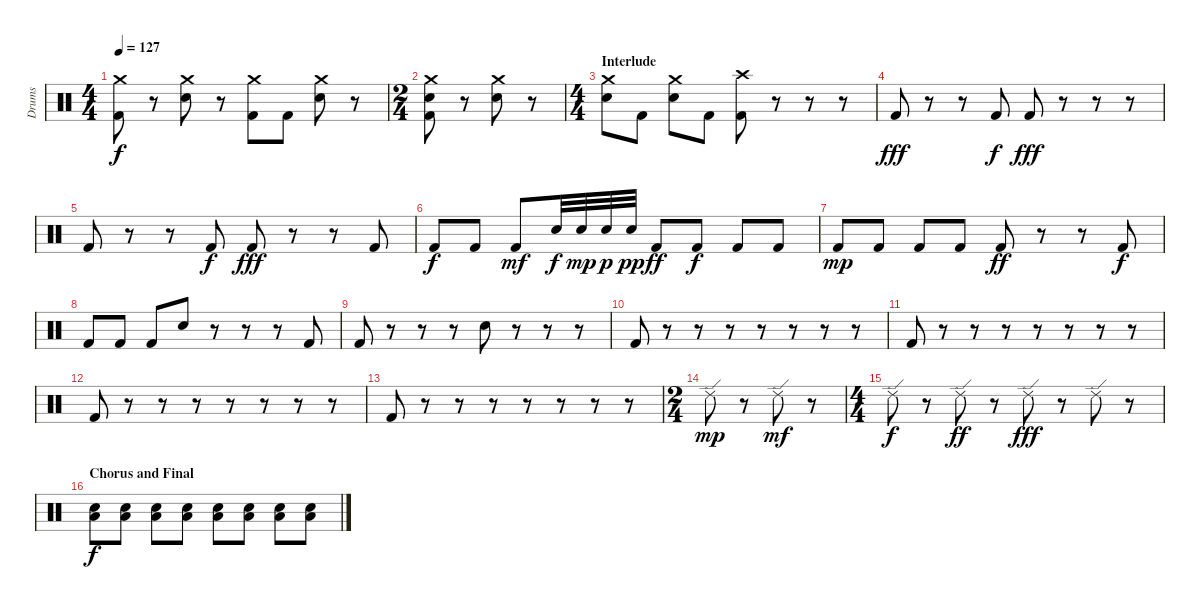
\track ("Drums" "Drums") {instrument percussion}
\staff {score}
\articulation defaults
\ts (4 4)
\tempo 127
\clef neutral
\ks c
("Crash medium (hit)" "Kick (hit) 2").8{dy f} r.8 ("Crash medium (hit)" "Electric Snare (hit)").8 r.8 ("Crash medium (hit)" "Kick (hit) 2").8 "Kick (hit) 2".8 ("Crash medium (hit)" "Electric Snare (hit)").8 r.8 |
\ts (2 4)
("Crash medium (hit)" "Electric Snare (hit)" "Kick (hit) 2").8 r.8 ("Crash medium (hit)" "Electric Snare (hit)").8 r.8 |
\ts (4 4)
\section ("" "Interlude")
("Crash medium (hit)" "Electric Snare (hit)").8 "Kick (hit) 2".8 ("Crash medium (hit)" "Electric Snare (hit)").8 "Kick (hit) 2".8 ("Crash high (hit)" "Kick (hit) 2").8 r.8 r.8 r.8 |
"Kick (hit) 2".8{dy fff} r.8 r.8 "Kick (hit) 2".8{dy f} "Kick (hit) 2".8{dy fff} r.8 r.8 r.8 |
"Kick (hit) 2".8 r.8 r.8 "Kick (hit) 2".8{dy f} "Kick (hit) 2".8{dy fff} r.8 r.8 "Kick (hit) 2".8 |
"Kick (hit) 2".8{dy f} "Kick (hit) 2".8 "Kick (hit) 2".8{dy mf} "Electric Snare (hit)".32{dy f} "Electric Snare (hit)".32{dy mp} "Electric Snare (hit)".32{dy p} "Electric Snare (hit)".32{dy pp} "Kick (hit) 2".8{dy ff} "Kick (hit) 2".8{dy f} "Kick (hit) 2".8 "Kick (hit) 2".8 |
"Kick (hit) 2".8{dy mp} "Kick (hit) 2".8 "Kick (hit) 2".8 "Kick (hit) 2".8 "Kick (hit) 2".8{dy ff} r.8 r.8 "Kick (hit) 2".8{dy f} |
"Kick (hit) 2".8 "Kick (hit) 2".8 "Kick (hit) 2".8 "Electric Snare (hit)".8 r.8 r.8 r.8 "Kick (hit) 2".8 |
"Kick (hit) 2".8 r.8 r.8 r.8 "Electric Snare (hit)".8 r.8 r.8 r.8 |
"Kick (hit) 2".8 r.8 r.8 r.8 r.8 r.8 r.8 r.8 |
"Kick (hit) 2".8 r.8 r.8 r.8 r.8 r.8 r.8 r.8 |
"Kick (hit) 2".8 r.8 r.8 r.8 r.8 r.8 r.8 r.8 |
"Kick (hit) 2".8 r.8 r.8 r.8 r.8 r.8 r.8 r.8 |
\ts (2 4)
"Ride (edge) 2".8{dy mp} r.8 "Ride (edge) 2".8{dy mf} r.8 |
\ts (4 4)
"Ride (edge) 2".8{dy f} r.8 "Ride (edge) 2".8{dy ff} r.8 "Ride (edge) 2".8{dy fff} r.8 "Ride (edge) 2".8{volume 9} r.8 |
\section ("" "Chorus and Final")
("Low Floor Tom (hit)" "Electric Snare (hit)").8{dy f volume 12} ("Low Floor Tom (hit)" "Electric Snare (hit)").8 ("Low Floor Tom (hit)" "Electric Snare (hit)").8 ("Low Floor Tom (hit)" "Electric Snare (hit)").8 ("Low Floor Tom (hit)" "Electric Snare (hit)").8 ("Low Floor Tom (hit)" "Electric Snare (hit)").8 ("Low Floor Tom (hit)" "Electric Snare (hit)").8 ("Low Floor Tom (hit)" "Electric Snare (hit)").8
